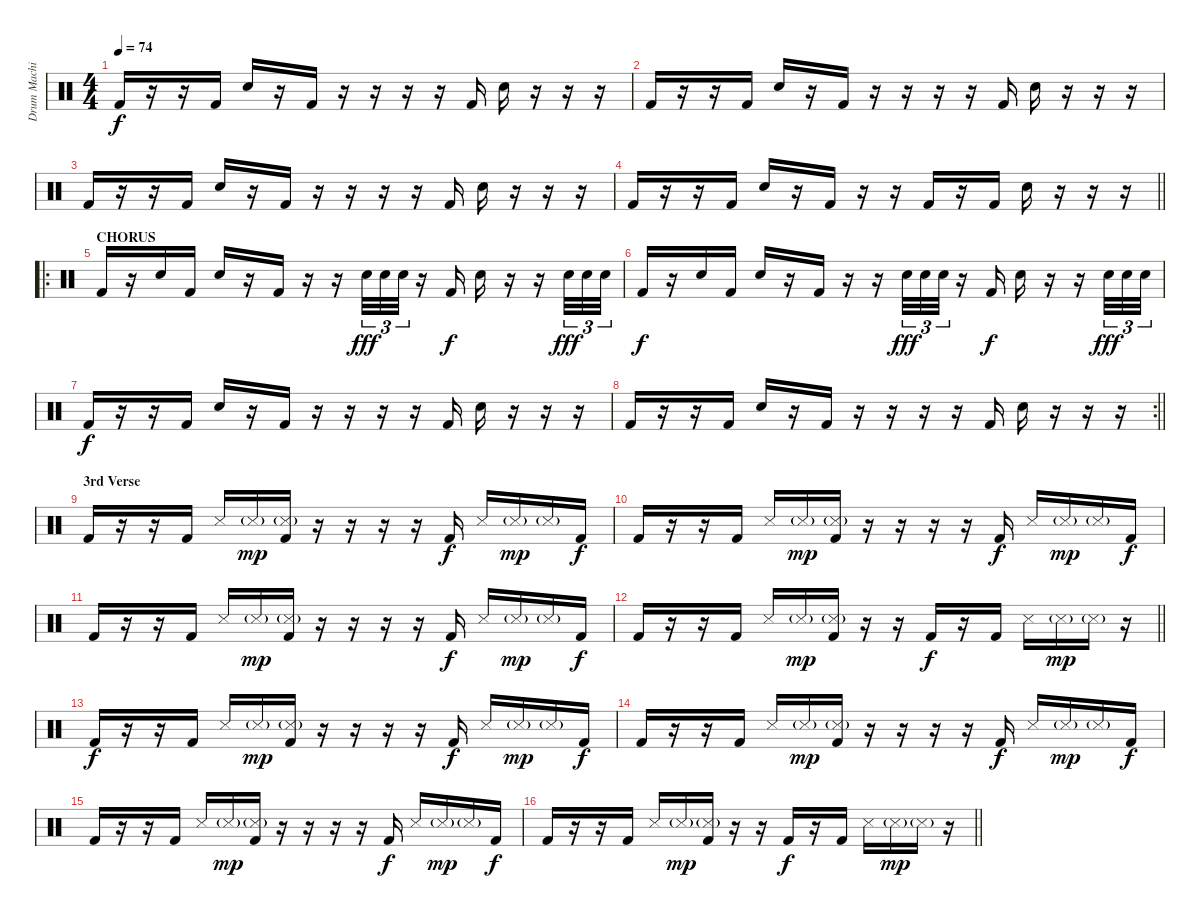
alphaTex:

\track ("Drum Machine" "Drum Machi") {instrument percussion}
\staff {score}
\articulation defaults
\ts (4 4)
\tempo 74
\clef neutral
\ks c "Kick (hit) 2".16{dy f}
r.16 r.16 "Kick (hit) 2".16 "Electric Snare (hit)".16 r.16 "Kick (hit) 2".16 r.16 r.16 r.16 r.16 "Kick (hit) 2".16 "Electric Snare (hit)".16 r.16 r.16 r.16 |
"Kick (hit) 2".16 r.16 r.16 "Kick (hit) 2".16 "Electric Snare (hit)".16 r.16 "Kick (hit) 2".16 r.16 r.16 r.16 r.16 "Kick (hit) 2".16 "Electric Snare (hit)".16 r.16 r.16 r.16 |
"Kick (hit) 2".16 r.16 r.16 "Kick (hit) 2".16 "Electric Snare (hit)".16 r.16 "Kick (hit) 2".16 r.16 r.16 r.16 r.16 "Kick (hit) 2".16 "Electric Snare (hit)".16 r.16 r.16 r.16 |
\barLineRight lightlight "Kick (hit) 2".16
r.16 r.16 "Kick (hit) 2".16 "Electric Snare (hit)".16 r.16 "Kick (hit) 2".16 r.16 r.16 "Kick (hit) 2".16 r.16 "Kick (hit) 2".16 "Electric Snare (hit)".16 r.16 r.16 r.16 |
\ro
\section ("" "CHORUS")
"Kick (hit) 2".16 r.16 "Electric Snare (hit)".16 "Kick (hit) 2".16 "Electric Snare (hit)".16 r.16 "Kick (hit) 2".16 r.16 r.16 "Electric Snare (hit)".32{tu (3 2) dy fff} "Electric Snare (hit)".32{tu (3 2)} "Electric Snare (hit)".32{tu (3 2)} r.16 "Kick (hit) 2".16{dy f} "Electric Snare (hit)".16 r.16 r.16 "Electric Snare (hit)".32{tu (3 2) dy fff} "Electric Snare (hit)".32{tu (3 2)} "Electric Snare (hit)".32{tu (3 2)} |
"Kick (hit) 2".16{dy f} r.16 "Electric Snare (hit)".16 "Kick (hit) 2".16 "Electric Snare (hit)".16 r.16 "Kick (hit) 2".16 r.16 r.16 "Electric Snare (hit)".32{tu (3 2) dy fff} "Electric Snare (hit)".32{tu (3 2)} "Electric Snare (hit)".32{tu (3 2)} r.16 "Kick (hit) 2".16{dy f} "Electric Snare (hit)".16 r.16 r.16 "Electric Snare (hit)".32{tu (3 2) dy fff} "Electric Snare (hit)".32{tu (3 2)} "Electric Snare (hit)".32{tu (3 2)} |
"Kick (hit) 2".16{dy f} r.16 r.16 "Kick (hit) 2".16 "Electric Snare (hit)".16 r.16 "Kick (hit) 2".16 r.16 r.16 r.16 r.16 "Kick (hit) 2".16 "Electric Snare (hit)".16 r.16 r.16 r.16 |
\rc 2
\barLineRight lightlight "Kick (hit) 2".16
r.16 r.16 "Kick (hit) 2".16 "Electric Snare (hit)".16 r.16 "Kick (hit) 2".16 r.16 r.16 r.16 r.16 "Kick (hit) 2".16 "Electric Snare (hit)".16 r.16 r.16 r.16 |
\section ("" "3rd Verse")
"Kick (hit) 2".16 r.16 r.16 "Kick (hit) 2".16 "Metronome (hit)".16 "Metronome (hit)"{g}.16{dy mp} ("Metronome (hit)"{g} "Kick (hit) 2").16 r.16 r.16 r.16 r.16 "Kick (hit) 2".16{dy f} "Metronome (hit)".16 "Metronome (hit)"{g}.16{dy mp} "Metronome (hit)"{g}.16 "Kick (hit) 2".16{dy f} |
"Kick (hit) 2".16 r.16 r.16 "Kick (hit) 2".16 "Metronome (hit)".16 "Metronome (hit)"{g}.16{dy mp} ("Metronome (hit)"{g} "Kick (hit) 2").16 r.16 r.16 r.16 r.16 "Kick (hit) 2".16{dy f} "Metronome (hit)".16 "Metronome (hit)"{g}.16{dy mp} "Metronome (hit)"{g}.16 "Kick (hit) 2".16{dy f} |
"Kick (hit) 2".16 r.16 r.16 "Kick (hit) 2".16 "Metronome (hit)".16 "Metronome (hit)"{g}.16{dy mp} ("Metronome (hit)"{g} "Kick (hit) 2").16 r.16 r.16 r.16 r.16 "Kick (hit) 2".16{dy f} "Metronome (hit)".16 "Metronome (hit)"{g}.16{dy mp} "Metronome (hit)"{g}.16 "Kick (hit) 2".16{dy f} |
\barLineRight lightlight "Kick (hit) 2".16
r.16 r.16 "Kick (hit) 2".16 "Metronome (hit)".16 "Metronome (hit)"{g}.16{dy mp} ("Metronome (hit)"{g} "Kick (hit) 2").16 r.16 r.16 "Kick (hit) 2".16{dy f} r.16 "Kick (hit) 2".16 "Metronome (hit)".16 "Metronome (hit)"{g}.16{dy mp} "Metronome (hit)"{g}.16 r.16 |
"Kick (hit) 2".16{dy f} r.16 r.16 "Kick (hit) 2".16 "Metronome (hit)".16 "Metronome (hit)"{g}.16{dy mp} ("Metronome (hit)"{g} "Kick (hit) 2").16 r.16 r.16 r.16 r.16 "Kick (hit) 2".16{dy f} "Metronome (hit)".16 "Metronome (hit)"{g}.16{dy mp} "Metronome (hit)"{g}.16 "Kick (hit) 2".16{dy f} |
"Kick (hit) 2".16 r.16 r.16 "Kick (hit) 2".16 "Metronome (hit)".16 "Metronome (hit)"{g}.16{dy mp} ("Metronome (hit)"{g} "Kick (hit) 2").16 r.16 r.16 r.16 r.16 "Kick (hit) 2".16{dy f} "Metronome (hit)".16 "Metronome (hit)"{g}.16{dy mp} "Metronome (hit)"{g}.16 "Kick (hit) 2".16{dy f} |
"Kick (hit) 2".16 r.16 r.16 "Kick (hit) 2".16 "Metronome (hit)".16 "Metronome (hit)"{g}.16{dy mp} ("Metronome (hit)"{g} "Kick (hit) 2").16 r.16 r.16 r.16 r.16 "Kick (hit) 2".16{dy f} "Metronome (hit)".16 "Metronome (hit)"{g}.16{dy mp} "Metronome (hit)"{g}.16 "Kick (hit) 2".16{dy f} |
\barLineRight lightlight "Kick (hit) 2".16
r.16 r.16 "Kick (hit) 2".16 "Metronome (hit)".16 "Metronome (hit)"{g}.16{dy mp} ("Metronome (hit)"{g} "Kick (hit) 2").16 r.16 r.16 "Kick (hit) 2".16{dy f} r.16 "Kick (hit) 2".16 "Metronome (hit)".16 "Metronome (hit)"{g}.16{dy mp} "Metronome (hit)"{g}.16 r.16
